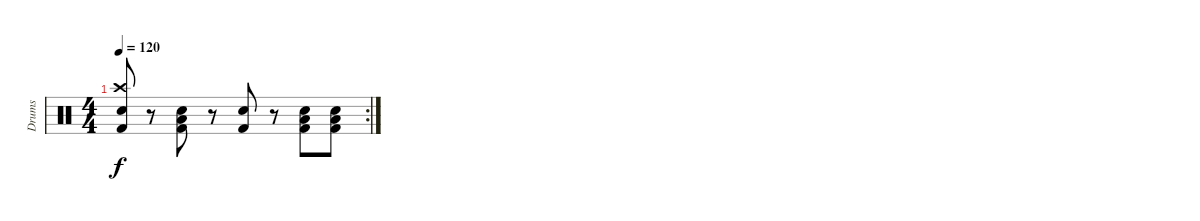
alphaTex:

\track ("Drums" "Drums") {instrument percussion}
\staff {score}
\articulation defaults
\rc 2
\ts (4 4)
\tempo 120
\clef neutral
\ks c
("Electric Snare (hit)" "Crash high (hit)" "Kick (hit) 2").8{dy f} r.8 ("Electric Snare (hit)" "Low Tom (hit)" "Kick (hit) 2").8 r.8 ("Electric Snare (hit)" "Kick (hit) 2").8 r.8 ("Electric Snare (hit)" "Low Tom (hit)" "Kick (hit) 2").8 ("Electric Snare (hit)" "Low Tom (hit)" "Kick (hit) 2").8
